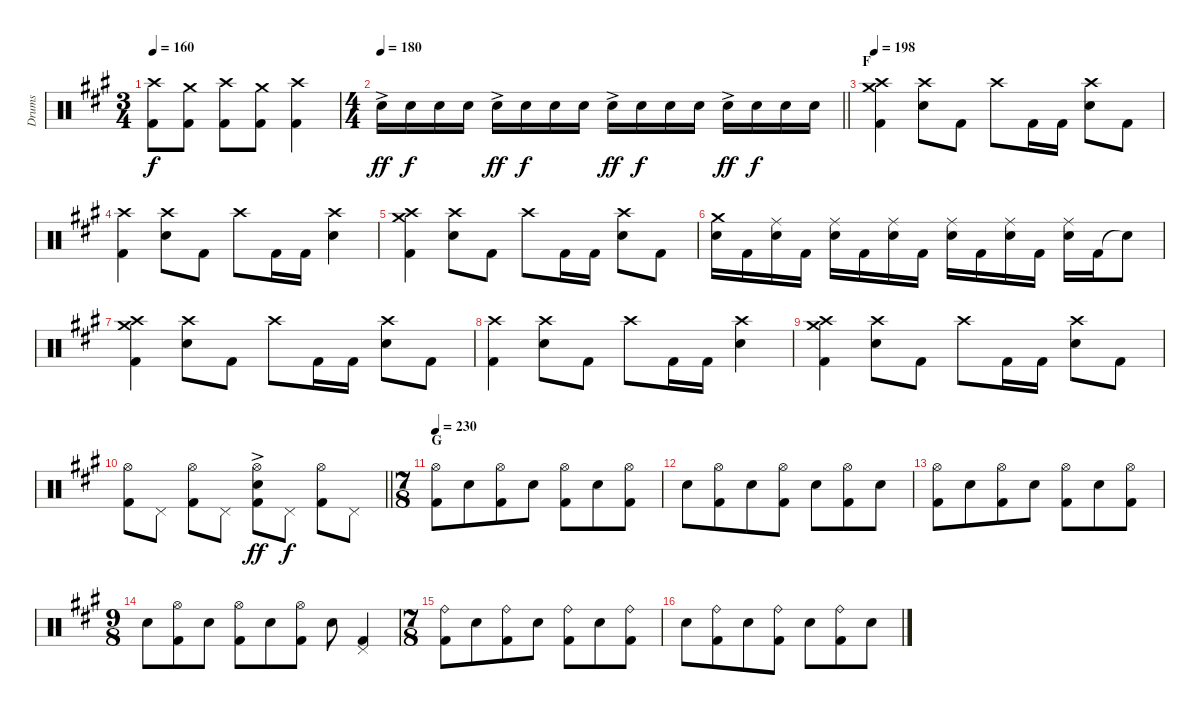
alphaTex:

\track ("Drums" "Drums") {instrument percussion}
\staff {score}
\articulation defaults
\ts (3 4)
\tempo 160
\clef neutral
\ks f#minor
("Crash high (hit)" "Kick (hit) 2").8{dy f} ("Crash medium (hit)" "Kick (hit) 2").8 ("Crash high (hit)" "Kick (hit) 2").8 ("Crash medium (hit)" "Kick (hit) 2").8 ("Crash high (hit)" "Kick (hit) 2").4 |
\ts (4 4)
\tempo 180
\barLineRight lightlight "Electric Snare (hit)"{ac}.16{dy ff} "Electric Snare (hit)".16{dy f} "Electric Snare (hit)".16 "Electric Snare (hit)".16 "Electric Snare (hit)"{ac}.16{dy ff} "Electric Snare (hit)".16{dy f} "Electric Snare (hit)".16 "Electric Snare (hit)".16 "Electric Snare (hit)"{ac}.16{dy ff} "Electric Snare (hit)".16{dy f} "Electric Snare (hit)".16 "Electric Snare (hit)".16 "Electric Snare (hit)"{ac}.16{dy ff} "Electric Snare (hit)".16{dy f} "Electric Snare (hit)".16 "Electric Snare (hit)".16
|
\section ("" "F")
\tempo 198
("Crash medium (hit)" "Crash high (hit)" "Kick (hit) 2").4 ("Crash high (hit)" "Electric Snare (hit)").8 "Kick (hit) 2".8 "Crash high (hit)".8 "Kick (hit) 2".16 "Kick (hit) 2".16 ("Crash high (hit)" "Electric Snare (hit)").8 "Kick (hit) 2".8 |
("Crash high (hit)" "Kick (hit) 2").4 ("Crash high (hit)" "Electric Snare (hit)").8 "Kick (hit) 2".8 "Crash high (hit)".8 "Kick (hit) 2".16 "Kick (hit) 2".16 ("Crash high (hit)" "Electric Snare (hit)").4 |
("Crash medium (hit)" "Crash high (hit)" "Kick (hit) 2").4 ("Crash high (hit)" "Electric Snare (hit)").8 "Kick (hit) 2".8 "Crash high (hit)".8 "Kick (hit) 2".16 "Kick (hit) 2".16 ("Crash high (hit)" "Electric Snare (hit)").8 "Kick (hit) 2".8 |
("Crash medium (hit)" "Electric Snare (hit)").16 "Kick (hit) 2".16 ("Ride (middle)" "Electric Snare (hit)").16 "Kick (hit) 2".16 ("Ride (middle)" "Electric Snare (hit)").16 "Kick (hit) 2".16 ("Ride (middle)" "Electric Snare (hit)").16 "Kick (hit) 2".16 ("Ride (middle)" "Electric Snare (hit)").16 "Kick (hit) 2".16 ("Ride (middle)" "Electric Snare (hit)").16 "Kick (hit) 2".16 ("Ride (middle)" "Electric Snare (hit)").16 "Kick (hit) 2".16 "Snare (hit)"{t}.8 |
("Crash medium (hit)" "Crash high (hit)" "Kick (hit) 2").4 ("Crash high (hit)" "Electric Snare (hit)").8 "Kick (hit) 2".8 "Crash high (hit)".8 "Kick (hit) 2".16 "Kick (hit) 2".16 ("Crash high (hit)" "Electric Snare (hit)").8 "Kick (hit) 2".8 |
("Crash high (hit)" "Kick (hit) 2").4 ("Crash high (hit)" "Electric Snare (hit)").8 "Kick (hit) 2".8 "Crash high (hit)".8 "Kick (hit) 2".16 "Kick (hit) 2".16 ("Crash high (hit)" "Electric Snare (hit)").4 |
("Crash medium (hit)" "Crash high (hit)" "Kick (hit) 2").4 ("Crash high (hit)" "Electric Snare (hit)").8 "Kick (hit) 2".8 "Crash high (hit)".8 "Kick (hit) 2".16 "Kick (hit) 2".16 ("Crash high (hit)" "Electric Snare (hit)").8 "Kick (hit) 2".8 |
\barLineRight lightlight
("Hi-Hat (open)" "Kick (hit) 2").8 "Pedal Hi-Hat (hit)".8 ("Hi-Hat (open)" "Kick (hit) 2").8 "Pedal Hi-Hat (hit)".8 ("Hi-Hat (open)" "Electric Snare (hit)"{ac} "Kick (hit) 2").8{dy ff} "Pedal Hi-Hat (hit)".8{dy f} ("Hi-Hat (open)" "Kick (hit) 2").8 "Pedal Hi-Hat (hit)".8 |
\ts (7 8)
\section ("" "G")
\tempo 230
("Hi-Hat (open)" "Kick (hit) 2").8 "Electric Snare (hit)".8 ("Hi-Hat (open)" "Kick (hit) 2").8 "Electric Snare (hit)".8 ("Hi-Hat (open)" "Kick (hit) 2").8 "Electric Snare (hit)".8 ("Hi-Hat (open)" "Kick (hit) 2").8 |
"Electric Snare (hit)".8 ("Hi-Hat (open)" "Kick (hit) 2").8 "Electric Snare (hit)".8 ("Hi-Hat (open)" "Kick (hit) 2").8 "Electric Snare (hit)".8 ("Hi-Hat (open)" "Kick (hit) 2").8 "Electric Snare (hit)".8 |
("Hi-Hat (open)" "Kick (hit) 2").8 "Electric Snare (hit)".8 ("Hi-Hat (open)" "Kick (hit) 2").8 "Electric Snare (hit)".8 ("Hi-Hat (open)" "Kick (hit) 2").8 "Electric Snare (hit)".8 ("Hi-Hat (open)" "Kick (hit) 2").8 |
\ts (9 8)
"Electric Snare (hit)".8 ("Hi-Hat (open)" "Kick (hit) 2").8 "Electric Snare (hit)".8 ("Hi-Hat (open)" "Kick (hit) 2").8 "Electric Snare (hit)".8 ("Hi-Hat (open)" "Kick (hit) 2").8 "Electric Snare (hit)".8 ("Pedal Hi-Hat (hit)" "Kick (hit) 2").4 |
\ts (7 8)
("Ride (bell)" "Kick (hit) 2").8 "Electric Snare (hit)".8 ("Ride (bell)" "Kick (hit) 2").8 "Electric Snare (hit)".8 ("Ride (bell)" "Kick (hit) 2").8 "Electric Snare (hit)".8 ("Ride (bell)" "Kick (hit) 2").8 |
"Electric Snare (hit)".8 ("Ride (bell)" "Kick (hit) 2").8 "Electric Snare (hit)".8 ("Ride (bell)" "Kick (hit) 2").8 "Electric Snare (hit)".8 ("Ride (bell)" "Kick (hit) 2").8 "Electric Snare (hit)".8
